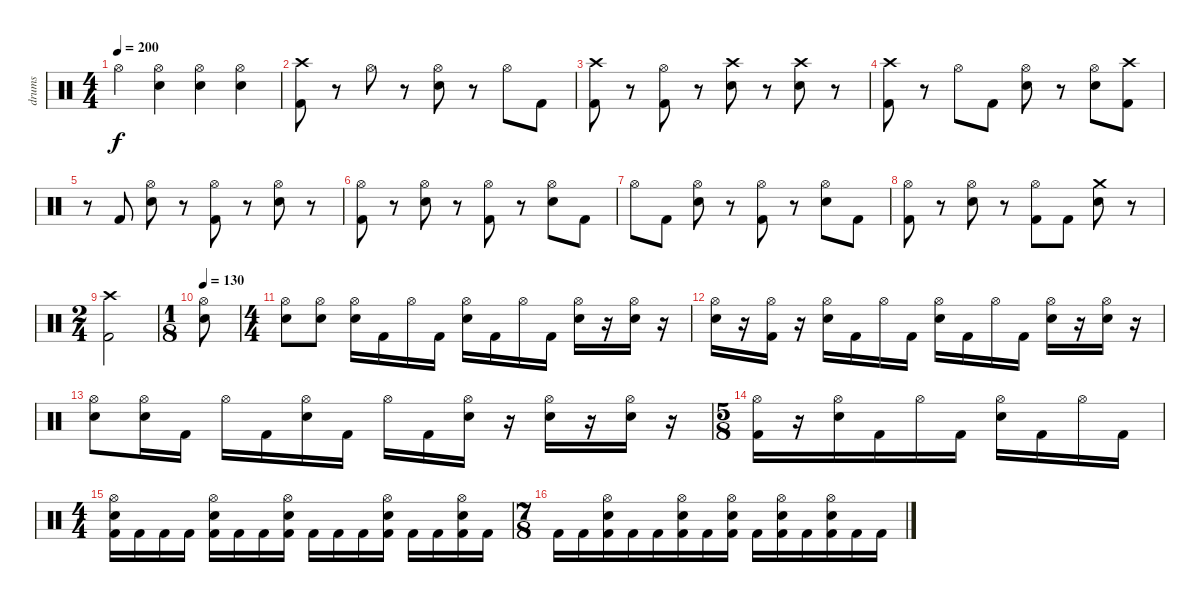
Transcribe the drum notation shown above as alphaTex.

\track ("drums" "drums") {instrument percussion}
\staff {score}
\articulation defaults
\ts (4 4)
\tempo 200
\clef neutral
\ks c "Hi-Hat (open)".4{dy f}
("Hi-Hat (open)" "Snare (hit) 2").4 ("Hi-Hat (open)" "Snare (hit) 2").4 ("Hi-Hat (open)" "Snare (hit) 2").4 |
("Crash high (hit)" "Kick (hit) 2").8 r.8 "Hi-Hat (open)".8 r.8 ("Hi-Hat (open)" "Snare (hit) 2").8 r.8 "Hi-Hat (open)".8 "Kick (hit) 2".8 |
("Crash high (hit)" "Kick (hit) 2").8 r.8 ("Hi-Hat (open)" "Kick (hit) 2").8 r.8 ("Crash high (hit)" "Snare (hit) 2").8 r.8 ("Crash high (hit)" "Snare (hit) 2").8 r.8 |
("Crash high (hit)" "Kick (hit) 2").8 r.8 "Hi-Hat (open)".8 "Kick (hit) 2".8 ("Hi-Hat (open)" "Snare (hit) 2").8 r.8 ("Hi-Hat (open)" "Snare (hit) 2").8 ("Crash high (hit)" "Kick (hit) 2").8 |
r.8 "Kick (hit) 2".8 ("Hi-Hat (open)" "Snare (hit) 2").8 r.8 ("Hi-Hat (open)" "Kick (hit) 2").8 r.8 ("Hi-Hat (open)" "Snare (hit) 2").8 r.8 |
("Hi-Hat (open)" "Kick (hit) 2").8 r.8 ("Hi-Hat (open)" "Snare (hit) 2").8 r.8 ("Hi-Hat (open)" "Kick (hit) 2").8 r.8 ("Hi-Hat (open)" "Snare (hit) 2").8 "Kick (hit) 2".8 |
"Hi-Hat (open)".8 "Kick (hit) 2".8 ("Hi-Hat (open)" "Snare (hit) 2").8 r.8 ("Hi-Hat (open)" "Kick (hit) 2").8 r.8 ("Hi-Hat (open)" "Snare (hit) 2").8 "Kick (hit) 2".8 |
("Hi-Hat (open)" "Kick (hit) 2").8 r.8 ("Hi-Hat (open)" "Snare (hit) 2").8 r.8 ("Hi-Hat (open)" "Kick (hit) 2").8 "Kick (hit) 2".8 ("Crash medium (hit)" "Snare (hit) 2").8 r.8 |
\ts (2 4)
("Crash high (hit)" "Kick (hit) 2").2 |
\ts (1 8)
\tempo 130
("Hi-Hat (open)" "Snare (hit) 2").8 |
\ts (4 4)
("Hi-Hat (open)" "Snare (hit) 2").8 ("Hi-Hat (open)" "Snare (hit) 2").8 ("Hi-Hat (open)" "Snare (hit) 2").16 "Kick (hit) 2".16 "Hi-Hat (open)".16 "Kick (hit) 2".16 ("Hi-Hat (open)" "Snare (hit) 2").16 "Kick (hit) 2".16 "Hi-Hat (open)".16 "Kick (hit) 2".16 ("Hi-Hat (open)" "Snare (hit) 2").16 r.16 ("Hi-Hat (open)" "Snare (hit) 2").16 r.16 |
("Hi-Hat (open)" "Snare (hit) 2").16 r.16 ("Hi-Hat (open)" "Kick (hit) 2").16 r.16 ("Hi-Hat (open)" "Snare (hit) 2").16 "Kick (hit) 2".16 "Hi-Hat (open)".16 "Kick (hit) 2".16 ("Hi-Hat (open)" "Snare (hit) 2").16 "Kick (hit) 2".16 "Hi-Hat (open)".16 "Kick (hit) 2".16 ("Hi-Hat (open)" "Snare (hit) 2").16 r.16 ("Hi-Hat (open)" "Snare (hit) 2").16 r.16 |
("Hi-Hat (open)" "Snare (hit) 2").8 ("Hi-Hat (open)" "Snare (hit) 2").16 "Kick (hit) 2".16 "Hi-Hat (open)".16 "Kick (hit) 2".16 ("Hi-Hat (open)" "Snare (hit) 2").16 "Kick (hit) 2".16 "Hi-Hat (open)".16 "Kick (hit) 2".16 ("Hi-Hat (open)" "Snare (hit) 2").16 r.16 ("Hi-Hat (open)" "Snare (hit) 2").16 r.16 ("Hi-Hat (open)" "Snare (hit) 2").16 r.16 |
\ts (5 8)
("Hi-Hat (open)" "Kick (hit) 2").16 r.16 ("Hi-Hat (open)" "Snare (hit) 2").16 "Kick (hit) 2".16 "Hi-Hat (open)".16 "Kick (hit) 2".16 ("Hi-Hat (open)" "Snare (hit) 2").16 "Kick (hit) 2".16 "Hi-Hat (open)".16 "Kick (hit) 2".16 |
\ts (4 4)
("Hi-Hat (open)" "Snare (hit) 2" "Kick (hit) 2").16 "Kick (hit) 2".16 "Kick (hit) 2".16 "Kick (hit) 2".16 ("Hi-Hat (open)" "Snare (hit) 2" "Kick (hit) 2").16 "Kick (hit) 2".16 "Kick (hit) 2".16 ("Hi-Hat (open)" "Snare (hit) 2" "Kick (hit) 2").16 "Kick (hit) 2".16 "Kick (hit) 2".16 "Kick (hit) 2".16 ("Hi-Hat (open)" "Snare (hit) 2" "Kick (hit) 2").16 "Kick (hit) 2".16 "Kick (hit) 2".16 ("Hi-Hat (open)" "Snare (hit) 2" "Kick (hit) 2").16 "Kick (hit) 2".16 |
\ts (7 8)
"Kick (hit) 2".16 "Kick (hit) 2".16 ("Hi-Hat (open)" "Snare (hit) 2" "Kick (hit) 2").16 "Kick (hit) 2".16 "Kick (hit) 2".16 ("Hi-Hat (open)" "Kick (hit) 2" "Snare (hit) 2").16 "Kick (hit) 2".16 ("Hi-Hat (open)" "Kick (hit) 2" "Snare (hit) 2").16 "Kick (hit) 2".16 ("Hi-Hat (open)" "Kick (hit) 2" "Snare (hit) 2").16 "Kick (hit) 2".16 ("Hi-Hat (open)" "Kick (hit) 2" "Snare (hit) 2").16 "Kick (hit) 2".16 "Kick (hit) 2".16
